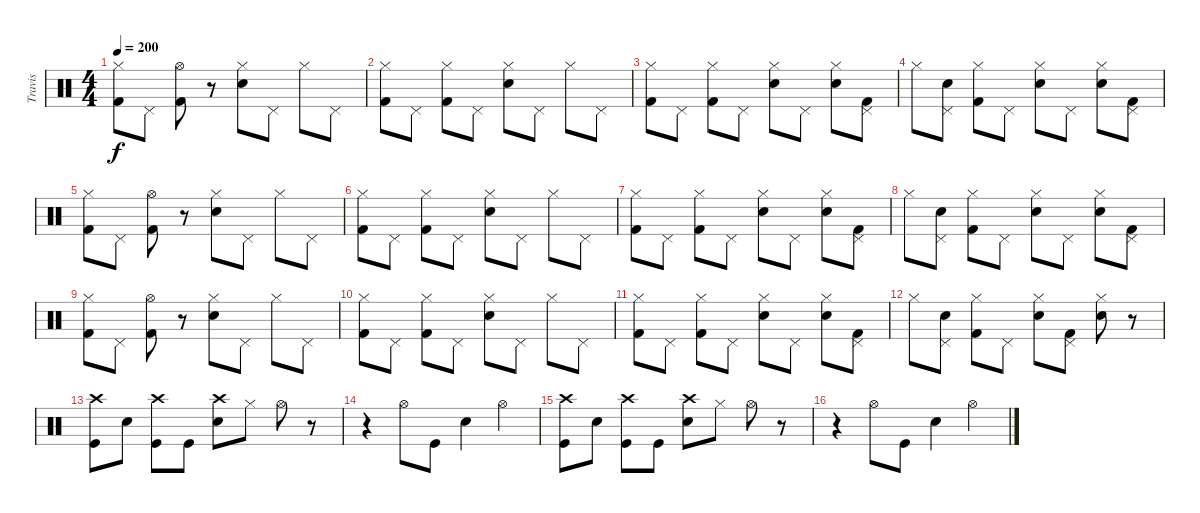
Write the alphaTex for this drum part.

\track ("Travis" "Travis") {instrument percussion}
\staff {score}
\articulation defaults
\ts (4 4)
\tempo 200
\clef neutral
\ks c
("Kick (hit) 2" "Hi-Hat (closed)").8{dy f} "Pedal Hi-Hat (hit)".8 ("Kick (hit) 2" "Hi-Hat (open)").8 r.8 ("Snare (hit) 2" "Hi-Hat (closed)").8 "Pedal Hi-Hat (hit)".8 "Hi-Hat (closed)".8 "Pedal Hi-Hat (hit)".8 |
("Kick (hit) 2" "Hi-Hat (closed)").8 "Pedal Hi-Hat (hit)".8 ("Kick (hit) 2" "Hi-Hat (closed)").8 "Pedal Hi-Hat (hit)".8 ("Snare (hit) 2" "Hi-Hat (closed)").8 "Pedal Hi-Hat (hit)".8 "Hi-Hat (closed)".8 "Pedal Hi-Hat (hit)".8 |
("Kick (hit) 2" "Hi-Hat (closed)").8 "Pedal Hi-Hat (hit)".8 ("Kick (hit) 2" "Hi-Hat (closed)").8 "Pedal Hi-Hat (hit)".8 ("Snare (hit) 2" "Hi-Hat (closed)").8 "Pedal Hi-Hat (hit)".8 ("Snare (hit) 2" "Hi-Hat (closed)").8 ("Kick (hit) 2" "Pedal Hi-Hat (hit)").8 |
"Hi-Hat (closed)".8 ("Snare (hit) 2" "Pedal Hi-Hat (hit)").8 ("Kick (hit) 2" "Hi-Hat (closed)").8 "Pedal Hi-Hat (hit)".8 ("Snare (hit) 2" "Hi-Hat (closed)").8 "Pedal Hi-Hat (hit)".8 ("Snare (hit) 2" "Hi-Hat (closed)").8 ("Kick (hit) 2" "Pedal Hi-Hat (hit)").8 |
("Kick (hit) 2" "Hi-Hat (closed)").8 "Pedal Hi-Hat (hit)".8 ("Kick (hit) 2" "Hi-Hat (open)").8 r.8 ("Snare (hit) 2" "Hi-Hat (closed)").8 "Pedal Hi-Hat (hit)".8 "Hi-Hat (closed)".8 "Pedal Hi-Hat (hit)".8 |
("Kick (hit) 2" "Hi-Hat (closed)").8 "Pedal Hi-Hat (hit)".8 ("Kick (hit) 2" "Hi-Hat (closed)").8 "Pedal Hi-Hat (hit)".8 ("Snare (hit) 2" "Hi-Hat (closed)").8 "Pedal Hi-Hat (hit)".8 "Hi-Hat (closed)".8 "Pedal Hi-Hat (hit)".8 |
("Kick (hit) 2" "Hi-Hat (closed)").8 "Pedal Hi-Hat (hit)".8 ("Kick (hit) 2" "Hi-Hat (closed)").8 "Pedal Hi-Hat (hit)".8 ("Snare (hit) 2" "Hi-Hat (closed)").8 "Pedal Hi-Hat (hit)".8 ("Snare (hit) 2" "Hi-Hat (closed)").8 ("Kick (hit) 2" "Pedal Hi-Hat (hit)").8 |
"Hi-Hat (closed)".8 ("Snare (hit) 2" "Pedal Hi-Hat (hit)").8 ("Kick (hit) 2" "Hi-Hat (closed)").8 "Pedal Hi-Hat (hit)".8 ("Snare (hit) 2" "Hi-Hat (closed)").8 "Pedal Hi-Hat (hit)".8 ("Snare (hit) 2" "Hi-Hat (closed)").8 ("Kick (hit) 2" "Pedal Hi-Hat (hit)").8 |
("Kick (hit) 2" "Hi-Hat (closed)").8 "Pedal Hi-Hat (hit)".8 ("Kick (hit) 2" "Hi-Hat (open)").8 r.8 ("Snare (hit) 2" "Hi-Hat (closed)").8 "Pedal Hi-Hat (hit)".8 "Hi-Hat (closed)".8 "Pedal Hi-Hat (hit)".8 |
("Kick (hit) 2" "Hi-Hat (closed)").8 "Pedal Hi-Hat (hit)".8 ("Kick (hit) 2" "Hi-Hat (closed)").8 "Pedal Hi-Hat (hit)".8 ("Snare (hit) 2" "Hi-Hat (closed)").8 "Pedal Hi-Hat (hit)".8 "Hi-Hat (closed)".8 "Pedal Hi-Hat (hit)".8 |
("Kick (hit) 2" "Hi-Hat (closed)").8 "Pedal Hi-Hat (hit)".8 ("Kick (hit) 2" "Hi-Hat (closed)").8 "Pedal Hi-Hat (hit)".8 ("Snare (hit) 2" "Hi-Hat (closed)").8 "Pedal Hi-Hat (hit)".8 ("Snare (hit) 2" "Hi-Hat (closed)").8 ("Kick (hit) 2" "Pedal Hi-Hat (hit)").8 |
"Hi-Hat (closed)".8 ("Snare (hit) 2" "Pedal Hi-Hat (hit)").8 ("Kick (hit) 2" "Hi-Hat (closed)").8 "Pedal Hi-Hat (hit)".8 ("Snare (hit) 2" "Hi-Hat (closed)").8 ("Kick (hit) 2" "Pedal Hi-Hat (hit)").8 ("Snare (hit) 2" "Hi-Hat (closed)").8 r.8 |
("Kick (hit)" "Crash high (hit)").8 "Snare (hit) 2".8 ("Kick (hit)" "Crash high (hit)").8 "Kick (hit)".8 ("Snare (hit) 2" "Crash high (hit)").8 "Hi-Hat (closed)".8 "Hi-Hat (open)".8 r.8 |
r.4 "Hi-Hat (open)".8 "Kick (hit)".8 "Snare (hit) 2".4 "Hi-Hat (open)".4 |
("Kick (hit)" "Crash high (hit)").8 "Snare (hit) 2".8 ("Kick (hit)" "Crash high (hit)").8 "Kick (hit)".8 ("Snare (hit) 2" "Crash high (hit)").8 "Hi-Hat (closed)".8 "Hi-Hat (open)".8 r.8 |
r.4 "Hi-Hat (open)".8 "Kick (hit)".8 "Snare (hit) 2".4 "Hi-Hat (open)".4
